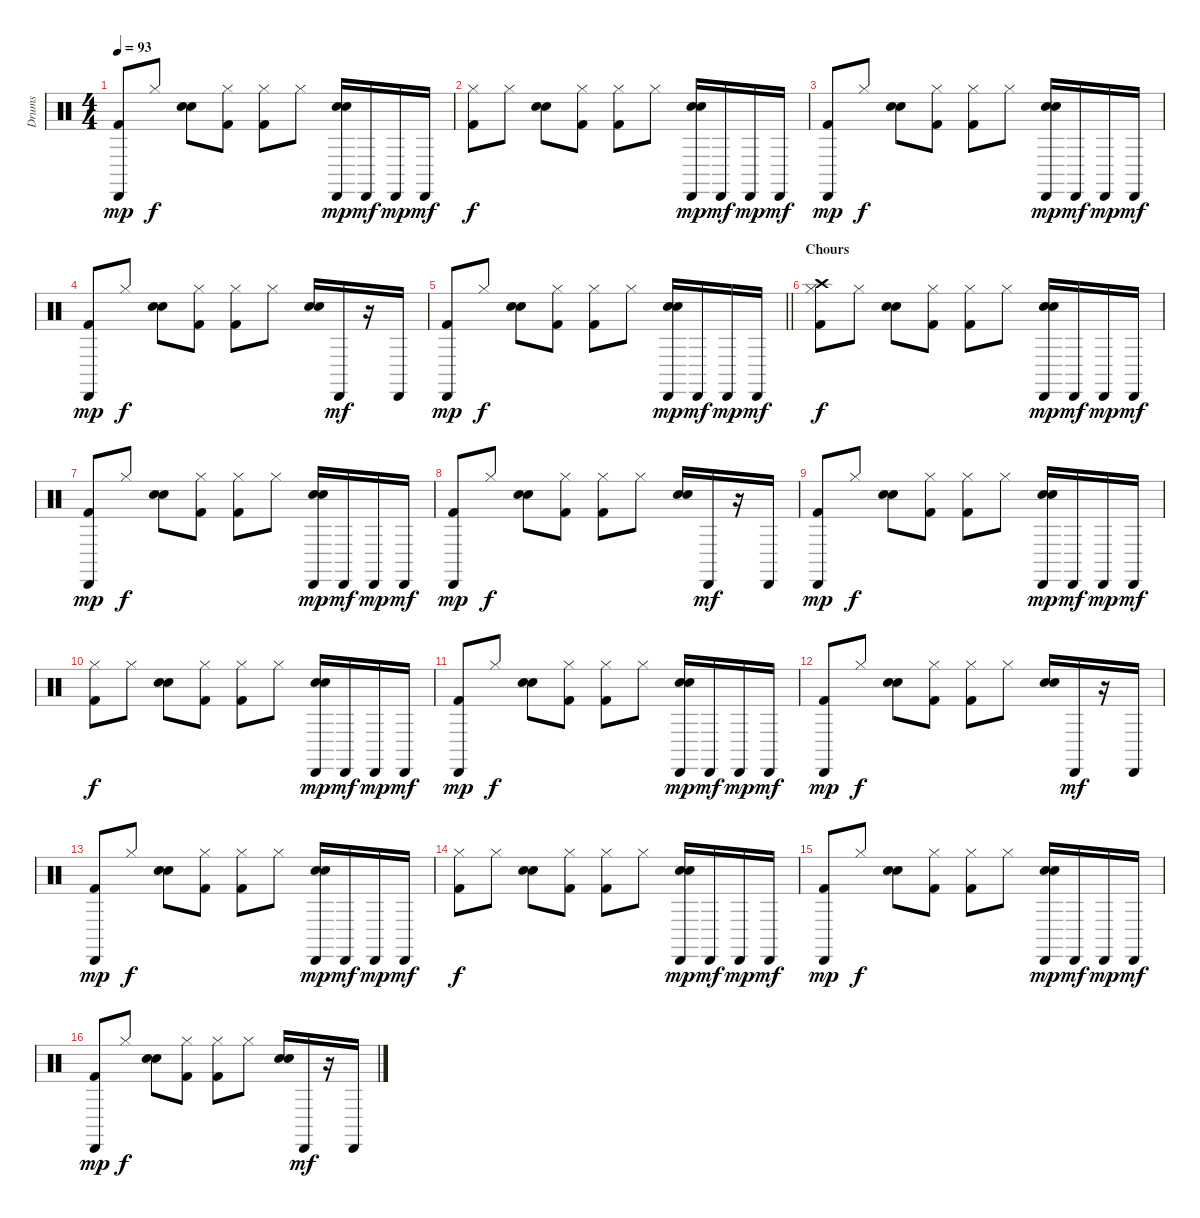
\track ("Drums" "Drums") {instrument percussion}
\staff {score}
\articulation defaults
\ts (4 4)
\tempo 93
\clef neutral
\ks c
("Kick (hit) 2" "Cabasa (hit)").8{dy mp} "Hi-Hat (closed)".8{dy f} ("Snare (hit) 2" "Hand Clap (hit)").8 ("Kick (hit) 2" "Hi-Hat (closed)").8 ("Kick (hit) 2" "Hi-Hat (closed)").8 "Hi-Hat (closed)".8 ("Cabasa (hit)" "Hand Clap (hit)" "Snare (hit) 2").16{dy mp} "Cabasa (hit)".16{dy mf} "Cabasa (hit)".16{dy mp} "Cabasa (hit)".16{dy mf} |
("Kick (hit) 2" "Hi-Hat (closed)").8{dy f} "Hi-Hat (closed)".8 ("Hand Clap (hit)" "Snare (hit) 2").8 ("Kick (hit) 2" "Hi-Hat (closed)").8 ("Hi-Hat (closed)" "Kick (hit) 2").8 "Hi-Hat (closed)".8 ("Hand Clap (hit)" "Cabasa (hit)" "Snare (hit) 2").16{dy mp} "Cabasa (hit)".16{dy mf} "Cabasa (hit)".16{dy mp} "Cabasa (hit)".16{dy mf} |
("Cabasa (hit)" "Kick (hit) 2").8{dy mp} "Hi-Hat (closed)".8{dy f} ("Snare (hit) 2" "Hand Clap (hit)").8 ("Kick (hit) 2" "Hi-Hat (closed)").8 ("Kick (hit) 2" "Hi-Hat (closed)").8 "Hi-Hat (closed)".8 ("Hand Clap (hit)" "Cabasa (hit)" "Snare (hit) 2").16{dy mp} "Cabasa (hit)".16{dy mf} "Cabasa (hit)".16{dy mp} "Cabasa (hit)".16{dy mf} |
("Cabasa (hit)" "Kick (hit) 2").8{dy mp} "Hi-Hat (closed)".8{dy f} ("Snare (hit) 2" "Hand Clap (hit)").8 ("Kick (hit) 2" "Hi-Hat (closed)").8 ("Kick (hit) 2" "Hi-Hat (closed)").8 "Hi-Hat (closed)".8 ("Snare (hit) 2" "Hand Clap (hit)").16 "Cabasa (hit)".16{dy mf} r.16 "Cabasa (hit)".16 |
\barLineRight lightlight
("Cabasa (hit)" "Kick (hit) 2").8{dy mp} "Hi-Hat (closed)".8{dy f} ("Hand Clap (hit)" "Snare (hit) 2").8 ("Hi-Hat (closed)" "Kick (hit) 2").8 ("Hi-Hat (closed)" "Kick (hit) 2").8 "Hi-Hat (closed)".8 ("Snare (hit) 2" "Cabasa (hit)" "Hand Clap (hit)").16{dy mp} "Cabasa (hit)".16{dy mf} "Cabasa (hit)".16{dy mp} "Cabasa (hit)".16{dy mf} |
\section ("" "Chours")
("Kick (hit) 2" "Crash high (hit)" "Hi-Hat (closed)").8{dy f} "Hi-Hat (closed)".8 ("Hand Clap (hit)" "Snare (hit) 2").8 ("Kick (hit) 2" "Hi-Hat (closed)").8 ("Hi-Hat (closed)" "Kick (hit) 2").8 "Hi-Hat (closed)".8 ("Hand Clap (hit)" "Cabasa (hit)" "Snare (hit) 2").16{dy mp} "Cabasa (hit)".16{dy mf} "Cabasa (hit)".16{dy mp} "Cabasa (hit)".16{dy mf} |
("Cabasa (hit)" "Kick (hit) 2").8{dy mp} "Hi-Hat (closed)".8{dy f} ("Snare (hit) 2" "Hand Clap (hit)").8 ("Hi-Hat (closed)" "Kick (hit) 2").8 ("Kick (hit) 2" "Hi-Hat (closed)").8 "Hi-Hat (closed)".8 ("Snare (hit) 2" "Hand Clap (hit)" "Cabasa (hit)").16{dy mp} "Cabasa (hit)".16{dy mf} "Cabasa (hit)".16{dy mp} "Cabasa (hit)".16{dy mf} |
("Kick (hit) 2" "Cabasa (hit)").8{dy mp} "Hi-Hat (closed)".8{dy f} ("Snare (hit) 2" "Hand Clap (hit)").8 ("Hi-Hat (closed)" "Kick (hit) 2").8 ("Kick (hit) 2" "Hi-Hat (closed)").8 "Hi-Hat (closed)".8 ("Snare (hit) 2" "Hand Clap (hit)").16 "Cabasa (hit)".16{dy mf} r.16 "Cabasa (hit)".16 |
("Cabasa (hit)" "Kick (hit) 2").8{dy mp} "Hi-Hat (closed)".8{dy f} ("Hand Clap (hit)" "Snare (hit) 2").8 ("Hi-Hat (closed)" "Kick (hit) 2").8 ("Hi-Hat (closed)" "Kick (hit) 2").8 "Hi-Hat (closed)".8 ("Cabasa (hit)" "Hand Clap (hit)" "Snare (hit) 2").16{dy mp} "Cabasa (hit)".16{dy mf} "Cabasa (hit)".16{dy mp} "Cabasa (hit)".16{dy mf} |
("Hi-Hat (closed)" "Kick (hit) 2").8{dy f} "Hi-Hat (closed)".8 ("Hand Clap (hit)" "Snare (hit) 2").8 ("Hi-Hat (closed)" "Kick (hit) 2").8 ("Kick (hit) 2" "Hi-Hat (closed)").8 "Hi-Hat (closed)".8 ("Cabasa (hit)" "Hand Clap (hit)" "Snare (hit) 2").16{dy mp} "Cabasa (hit)".16{dy mf} "Cabasa (hit)".16{dy mp} "Cabasa (hit)".16{dy mf} |
("Cabasa (hit)" "Kick (hit) 2").8{dy mp} "Hi-Hat (closed)".8{dy f} ("Hand Clap (hit)" "Snare (hit) 2").8 ("Hi-Hat (closed)" "Kick (hit) 2").8 ("Kick (hit) 2" "Hi-Hat (closed)").8 "Hi-Hat (closed)".8 ("Hand Clap (hit)" "Cabasa (hit)" "Snare (hit) 2").16{dy mp} "Cabasa (hit)".16{dy mf} "Cabasa (hit)".16{dy mp} "Cabasa (hit)".16{dy mf} |
("Kick (hit) 2" "Cabasa (hit)").8{dy mp} "Hi-Hat (closed)".8{dy f} ("Snare (hit) 2" "Hand Clap (hit)").8 ("Hi-Hat (closed)" "Kick (hit) 2").8 ("Kick (hit) 2" "Hi-Hat (closed)").8 "Hi-Hat (closed)".8 ("Hand Clap (hit)" "Snare (hit) 2").16 "Cabasa (hit)".16{dy mf} r.16 "Cabasa (hit)".16 |
("Kick (hit) 2" "Cabasa (hit)").8{dy mp} "Hi-Hat (closed)".8{dy f} ("Snare (hit) 2" "Hand Clap (hit)").8 ("Hi-Hat (closed)" "Kick (hit) 2").8 ("Hi-Hat (closed)" "Kick (hit) 2").8 "Hi-Hat (closed)".8 ("Hand Clap (hit)" "Snare (hit) 2" "Cabasa (hit)").16{dy mp} "Cabasa (hit)".16{dy mf} "Cabasa (hit)".16{dy mp} "Cabasa (hit)".16{dy mf} |
("Hi-Hat (closed)" "Kick (hit) 2").8{dy f} "Hi-Hat (closed)".8 ("Hand Clap (hit)" "Snare (hit) 2").8 ("Hi-Hat (closed)" "Kick (hit) 2").8 ("Hi-Hat (closed)" "Kick (hit) 2").8 "Hi-Hat (closed)".8 ("Hand Clap (hit)" "Cabasa (hit)" "Snare (hit) 2").16{dy mp} "Cabasa (hit)".16{dy mf} "Cabasa (hit)".16{dy mp} "Cabasa (hit)".16{dy mf} |
("Kick (hit) 2" "Cabasa (hit)").8{dy mp} "Hi-Hat (closed)".8{dy f} ("Snare (hit) 2" "Hand Clap (hit)").8 ("Hi-Hat (closed)" "Kick (hit) 2").8 ("Kick (hit) 2" "Hi-Hat (closed)").8 "Hi-Hat (closed)".8 ("Hand Clap (hit)" "Cabasa (hit)" "Snare (hit) 2").16{dy mp} "Cabasa (hit)".16{dy mf} "Cabasa (hit)".16{dy mp} "Cabasa (hit)".16{dy mf} |
("Kick (hit) 2" "Cabasa (hit)").8{dy mp} "Hi-Hat (closed)".8{dy f} ("Hand Clap (hit)" "Snare (hit) 2").8 ("Kick (hit) 2" "Hi-Hat (closed)").8 ("Kick (hit) 2" "Hi-Hat (closed)").8 "Hi-Hat (closed)".8 ("Snare (hit) 2" "Hand Clap (hit)").16 "Cabasa (hit)".16{dy mf} r.16 "Cabasa (hit)".16
